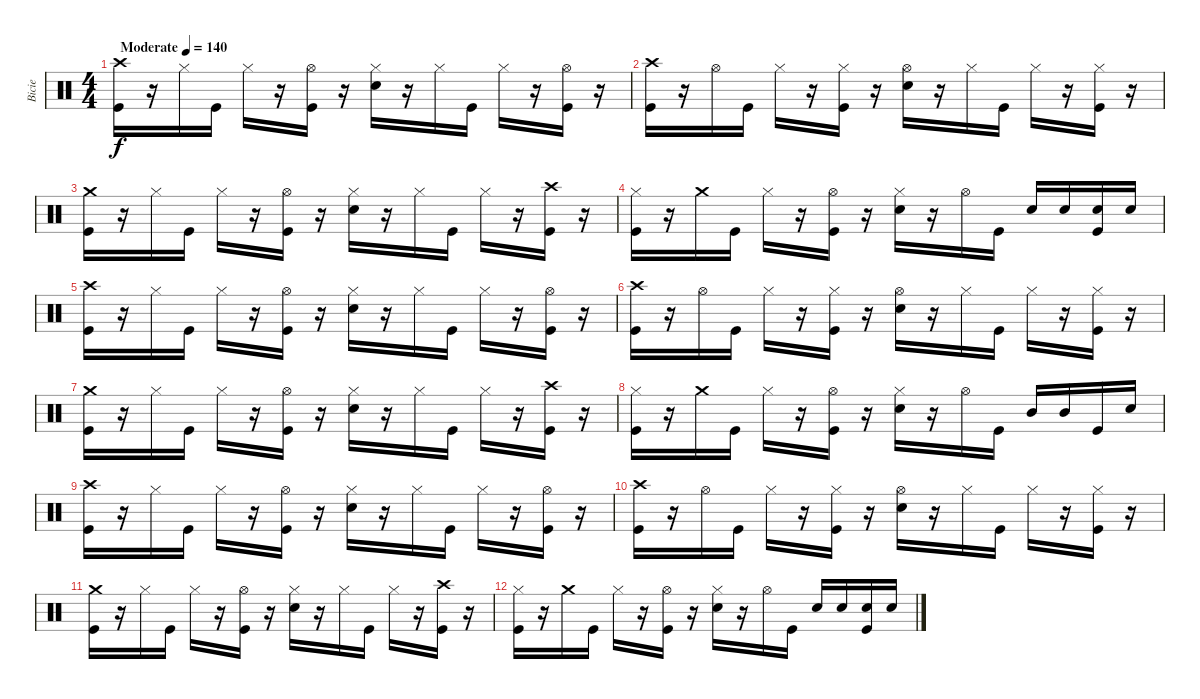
\track ("Bicie" "Bicie") {instrument percussion}
\staff {score}
\articulation defaults
\ts (4 4)
\tempo (140 "Moderate")
\clef neutral
\ks c
("Crash high (hit)" "Kick (hit)").16{dy f} r.16 "Hi-Hat (closed)".16 "Kick (hit)".16 "Hi-Hat (closed)".16 r.16 ("Hi-Hat (open)" "Kick (hit)").16 r.16 ("Hi-Hat (closed)" "Snare (hit) 2").16 r.16 "Hi-Hat (closed)".16 "Kick (hit)".16 "Hi-Hat (closed)".16 r.16 ("Hi-Hat (open)" "Kick (hit)").16 r.16 |
("Crash high (hit)" "Kick (hit)").16 r.16 "Hi-Hat (open)".16 "Kick (hit)".16 "Hi-Hat (closed)".16 r.16 ("Hi-Hat (closed)" "Kick (hit)").16 r.16 ("Hi-Hat (open)" "Snare (hit) 2").16 r.16 "Hi-Hat (closed)".16 "Kick (hit)".16 "Hi-Hat (closed)".16 r.16 ("Hi-Hat (closed)" "Kick (hit)").16 r.16 |
("Crash medium (hit)" "Kick (hit)").16 r.16 "Hi-Hat (closed)".16 "Kick (hit)".16 "Hi-Hat (closed)".16 r.16 ("Hi-Hat (open)" "Kick (hit)").16 r.16 ("Hi-Hat (closed)" "Snare (hit) 2").16 r.16 "Hi-Hat (closed)".16 "Kick (hit)".16 "Hi-Hat (closed)".16 r.16 ("Crash high (hit)" "Kick (hit)").16 r.16 |
("Hi-Hat (closed)" "Kick (hit)").16 r.16 "Crash medium (hit)".16 "Kick (hit)".16 "Hi-Hat (closed)".16 r.16 ("Hi-Hat (open)" "Kick (hit)").16 r.16 ("Hi-Hat (closed)" "Snare (hit) 2").16 r.16 "Hi-Hat (open)".16 "Kick (hit)".16 "Snare (hit) 2".16 "Snare (hit) 2".16 ("Snare (hit) 2" "Kick (hit)").16 "Snare (hit) 2".16 |
("Crash high (hit)" "Kick (hit)").16 r.16 "Hi-Hat (closed)".16 "Kick (hit)".16 "Hi-Hat (closed)".16 r.16 ("Hi-Hat (open)" "Kick (hit)").16 r.16 ("Hi-Hat (closed)" "Snare (hit) 2").16 r.16 "Hi-Hat (closed)".16 "Kick (hit)".16 "Hi-Hat (closed)".16 r.16 ("Hi-Hat (open)" "Kick (hit)").16 r.16 |
("Crash high (hit)" "Kick (hit)").16 r.16 "Hi-Hat (open)".16 "Kick (hit)".16 "Hi-Hat (closed)".16 r.16 ("Hi-Hat (closed)" "Kick (hit)").16 r.16 ("Hi-Hat (open)" "Snare (hit) 2").16 r.16 "Hi-Hat (closed)".16 "Kick (hit)".16 "Hi-Hat (closed)".16 r.16 ("Hi-Hat (closed)" "Kick (hit)").16 r.16 |
("Crash medium (hit)" "Kick (hit)").16 r.16 "Hi-Hat (closed)".16 "Kick (hit)".16 "Hi-Hat (closed)".16 r.16 ("Hi-Hat (open)" "Kick (hit)").16 r.16 ("Hi-Hat (closed)" "Snare (hit) 2").16 r.16 "Hi-Hat (closed)".16 "Kick (hit)".16 "Hi-Hat (closed)".16 r.16 ("Crash high (hit)" "Kick (hit)").16 r.16 |
("Hi-Hat (closed)" "Kick (hit)").16 r.16 "Crash medium (hit)".16 "Kick (hit)".16 "Hi-Hat (closed)".16 r.16 ("Hi-Hat (open)" "Kick (hit)").16 r.16 ("Hi-Hat (closed)" "Snare (hit) 2").16 r.16 "Hi-Hat (open)".16 "Kick (hit)".16 "Mid Tom (hit)".16 "Mid Tom (hit)".16 "Kick (hit)".16 "Snare (hit) 2".16 |
("Crash high (hit)" "Kick (hit)").16 r.16 "Hi-Hat (closed)".16 "Kick (hit)".16 "Hi-Hat (closed)".16 r.16 ("Hi-Hat (open)" "Kick (hit)").16 r.16 ("Hi-Hat (closed)" "Snare (hit) 2").16 r.16 "Hi-Hat (closed)".16 "Kick (hit)".16 "Hi-Hat (closed)".16 r.16 ("Hi-Hat (open)" "Kick (hit)").16 r.16 |
("Crash high (hit)" "Kick (hit)").16 r.16 "Hi-Hat (open)".16 "Kick (hit)".16 "Hi-Hat (closed)".16 r.16 ("Hi-Hat (closed)" "Kick (hit)").16 r.16 ("Hi-Hat (open)" "Snare (hit) 2").16 r.16 "Hi-Hat (closed)".16 "Kick (hit)".16 "Hi-Hat (closed)".16 r.16 ("Hi-Hat (closed)" "Kick (hit)").16 r.16 |
("Crash medium (hit)" "Kick (hit)").16 r.16 "Hi-Hat (closed)".16 "Kick (hit)".16 "Hi-Hat (closed)".16 r.16 ("Hi-Hat (open)" "Kick (hit)").16 r.16 ("Hi-Hat (closed)" "Snare (hit) 2").16 r.16 "Hi-Hat (closed)".16 "Kick (hit)".16 "Hi-Hat (closed)".16 r.16 ("Crash high (hit)" "Kick (hit)").16 r.16 |
("Hi-Hat (closed)" "Kick (hit)").16 r.16 "Crash medium (hit)".16 "Kick (hit)".16 "Hi-Hat (closed)".16 r.16 ("Hi-Hat (open)" "Kick (hit)").16 r.16 ("Hi-Hat (closed)" "Snare (hit) 2").16 r.16 "Hi-Hat (open)".16 "Kick (hit)".16 "Snare (hit) 2".16 "Snare (hit) 2".16 ("Snare (hit) 2" "Kick (hit)").16 "Snare (hit) 2".16
